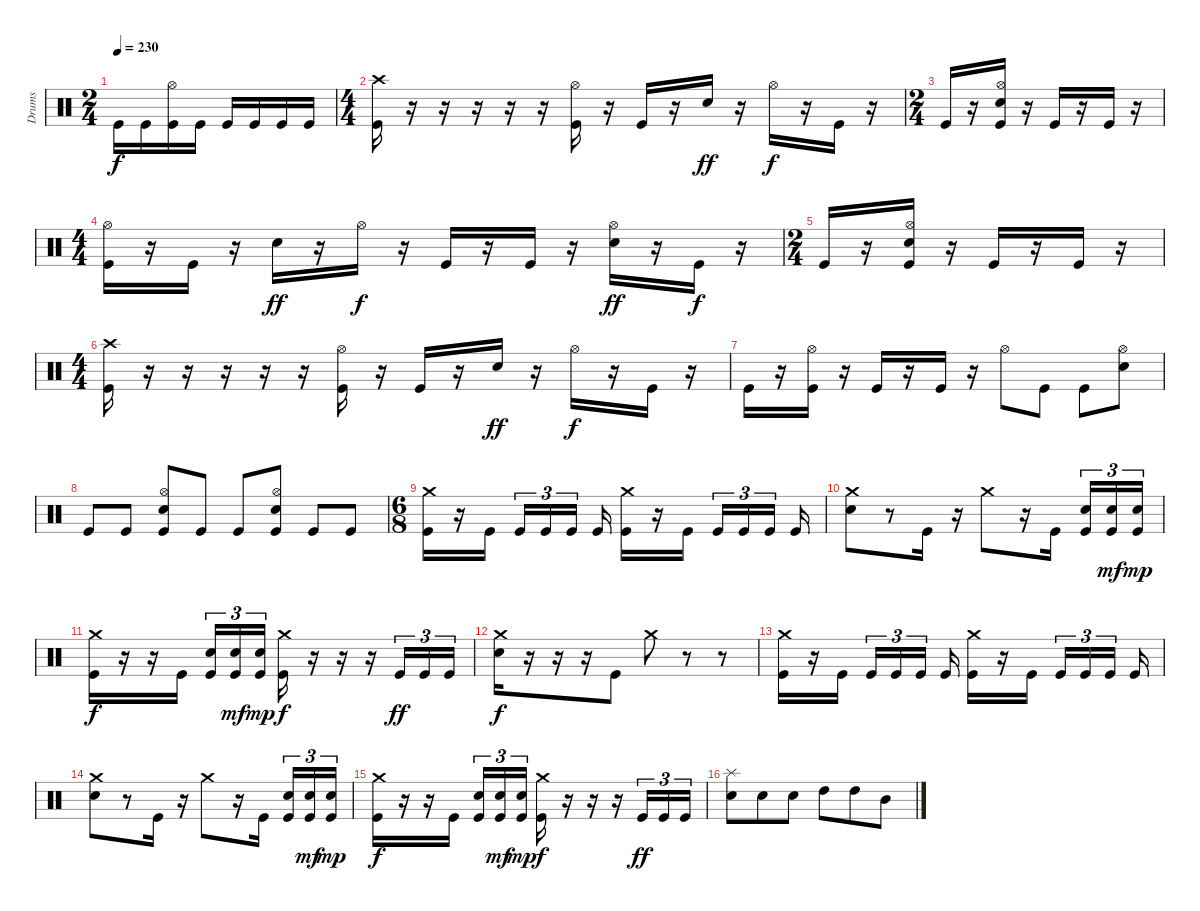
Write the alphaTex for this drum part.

\track ("Drums" "Drums") {instrument percussion}
\staff {score}
\articulation defaults
\ts (2 4)
\tempo 230
\clef neutral
\ks c "Kick (hit)".16{dy f} "Kick (hit)".16
("Kick (hit)" "Hi-Hat (open)").16 "Kick (hit)".16 "Kick (hit)".16 "Kick (hit)".16 "Kick (hit)".16 "Kick (hit)".16 |
\ts (4 4)
("Kick (hit)" "Crash high (hit)").16 r.16 r.16 r.16 r.16 r.16 ("Kick (hit)" "Hi-Hat (open)").16 r.16 "Kick (hit)".16 r.16 "Snare (hit) 2".16{dy ff} r.16 "Hi-Hat (open)".16{dy f} r.16 "Kick (hit)".16 r.16 |
\ts (2 4)
"Kick (hit)".16 r.16 ("Kick (hit)" "Snare (hit) 2" "Hi-Hat (open)").16 r.16 "Kick (hit)".16 r.16 "Kick (hit)".16 r.16 |
\ts (4 4)
("Kick (hit)" "Hi-Hat (open)").16 r.16 "Kick (hit)".16 r.16 "Snare (hit) 2".16{dy ff} r.16 "Hi-Hat (open)".16{dy f} r.16 "Kick (hit)".16 r.16 "Kick (hit)".16 r.16 ("Snare (hit) 2" "Hi-Hat (open)").16{dy ff} r.16 "Kick (hit)".16{dy f} r.16 |
\ts (2 4)
"Kick (hit)".16 r.16 ("Kick (hit)" "Snare (hit) 2" "Hi-Hat (open)").16 r.16 "Kick (hit)".16 r.16 "Kick (hit)".16 r.16 |
\ts (4 4)
("Kick (hit)" "Crash high (hit)").16 r.16 r.16 r.16 r.16 r.16 ("Kick (hit)" "Hi-Hat (open)").16 r.16 "Kick (hit)".16 r.16 "Snare (hit) 2".16{dy ff} r.16 "Hi-Hat (open)".16{dy f} r.16 "Kick (hit)".16 r.16 |
"Kick (hit)".16 r.16 ("Kick (hit)" "Hi-Hat (open)").16 r.16 "Kick (hit)".16 r.16 "Kick (hit)".16 r.16 "Hi-Hat (open)".8 "Kick (hit)".8 "Kick (hit)".8 ("Snare (hit) 2" "Hi-Hat (open)").8 |
"Kick (hit)".8 "Kick (hit)".8 ("Kick (hit)" "Snare (hit) 2" "Hi-Hat (open)").8 "Kick (hit)".8 "Kick (hit)".8 ("Kick (hit)" "Snare (hit) 2" "Hi-Hat (open)").8 "Kick (hit)".8 "Kick (hit)".8 |
\ts (6 8)
("Kick (hit)" "Crash medium (hit)").16 r.16 "Kick (hit)".16{beam splitsecondary} "Kick (hit)".16{tu (3 2)} "Kick (hit)".16{tu (3 2)} "Kick (hit)".16{tu (3 2) beam splitsecondary} "Kick (hit)".16 ("Kick (hit)" "Crash medium (hit)").16 r.16 "Kick (hit)".16{beam splitsecondary} "Kick (hit)".16{tu (3 2)} "Kick (hit)".16{tu (3 2)} "Kick (hit)".16{tu (3 2) beam splitsecondary} "Kick (hit)".16 |
("Snare (hit) 2" "Crash medium (hit)").8 r.8 "Kick (hit)".16 r.16 "Crash medium (hit)".8 r.16 "Kick (hit)".16{beam splitsecondary} ("Kick (hit)" "Snare (hit) 2").16{tu (3 2)} ("Kick (hit)" "Snare (hit) 2").16{tu (3 2) dy mf} ("Kick (hit)" "Snare (hit) 2").16{tu (3 2) dy mp} |
("Kick (hit)" "Crash medium (hit)").16{dy f} r.16 r.16 "Kick (hit)".16{beam splitsecondary} ("Kick (hit)" "Snare (hit) 2").16{tu (3 2)} ("Kick (hit)" "Snare (hit) 2").16{tu (3 2) dy mf} ("Kick (hit)" "Snare (hit) 2").16{tu (3 2) dy mp} ("Kick (hit)" "Crash medium (hit)").16{dy f} r.16 r.16 r.16 "Kick (hit)".16{tu (3 2) dy ff} "Kick (hit)".16{tu (3 2)} "Kick (hit)".16{tu (3 2)} |
("Snare (hit) 2" "Crash medium (hit)").16{dy f} r.16 r.16 r.16 "Kick (hit)".8 "Crash medium (hit)".8 r.8 r.8 |
("Kick (hit)" "Crash medium (hit)").16 r.16 "Kick (hit)".16{beam splitsecondary} "Kick (hit)".16{tu (3 2)} "Kick (hit)".16{tu (3 2)} "Kick (hit)".16{tu (3 2) beam splitsecondary} "Kick (hit)".16 ("Kick (hit)" "Crash medium (hit)").16 r.16 "Kick (hit)".16{beam splitsecondary} "Kick (hit)".16{tu (3 2)} "Kick (hit)".16{tu (3 2)} "Kick (hit)".16{tu (3 2) beam splitsecondary} "Kick (hit)".16 |
("Snare (hit) 2" "Crash medium (hit)").8 r.8 "Kick (hit)".16 r.16 "Crash medium (hit)".8 r.16 "Kick (hit)".16{beam splitsecondary} ("Kick (hit)" "Snare (hit) 2").16{tu (3 2)} ("Kick (hit)" "Snare (hit) 2").16{tu (3 2) dy mf} ("Kick (hit)" "Snare (hit) 2").16{tu (3 2) dy mp} |
("Kick (hit)" "Crash medium (hit)").16{dy f} r.16 r.16 "Kick (hit)".16{beam splitsecondary} ("Kick (hit)" "Snare (hit) 2").16{tu (3 2)} ("Kick (hit)" "Snare (hit) 2").16{tu (3 2) dy mf} ("Kick (hit)" "Snare (hit) 2").16{tu (3 2) dy mp} ("Kick (hit)" "Crash medium (hit)").16{dy f} r.16 r.16 r.16 "Kick (hit)".16{tu (3 2) dy ff} "Kick (hit)".16{tu (3 2)} "Kick (hit)".16{tu (3 2)} |
("Splash (hit)" "Snare (hit) 2").8 "Snare (hit) 2".8 "Snare (hit) 2".8 "High Tom (hit)".8 "High Tom (hit)".8 "Mid Tom (hit)".8
